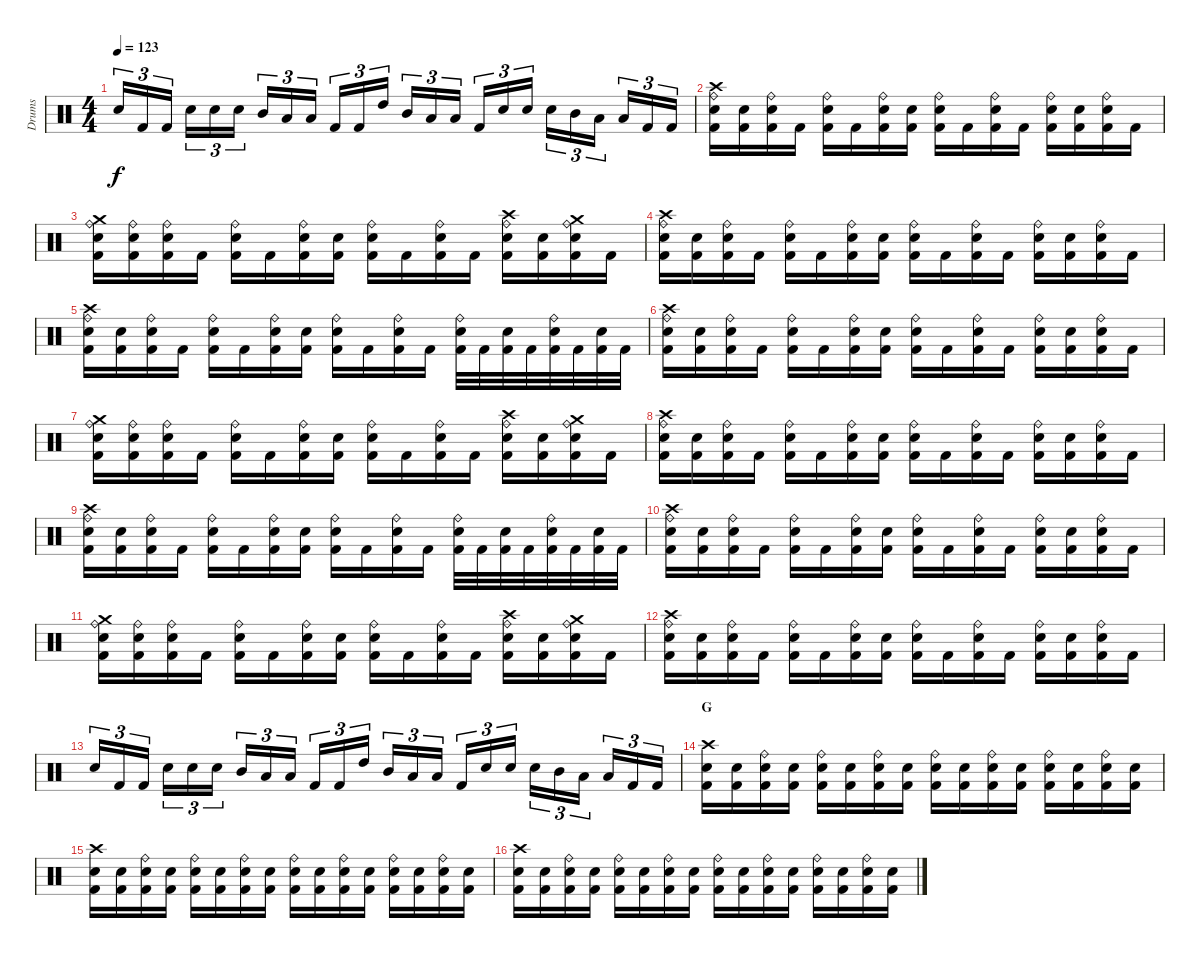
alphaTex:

\track ("Drums" "Drums") {instrument percussion}
\staff {score}
\articulation defaults
\ts (4 4)
\tempo 123
\clef neutral
\ks c "Snare (hit) 2".16{tu (3 2) dy f} "Kick (hit) 2".16{tu (3 2)} "Kick (hit) 2".16{tu (3 2) beam splitsecondary} "Snare (hit) 2".16{tu (3 2)} "Snare (hit) 2".16{tu (3 2)} "Snare (hit) 2".16{tu (3 2)} "Mid Tom (hit)".16{tu (3 2)} "Low Tom (hit)".16{tu (3 2)} "Low Floor Tom (hit)".16{tu (3 2) beam splitsecondary} "Kick (hit) 2".16{tu (3 2)} "Kick (hit) 2".16{tu (3 2)} "High Tom (hit)".16{tu (3 2)} "Mid Tom (hit)".16{tu (3 2)} "Low Tom (hit)".16{tu (3 2)} "Low Floor Tom (hit)".16{tu (3 2) beam splitsecondary} "Kick (hit) 2".16{tu (3 2)} "Snare (hit) 2".16{tu (3 2)} "Snare (hit) 2".16{tu (3 2)} "Snare (hit) 2".16{tu (3 2)} "Mid Tom (hit)".16{tu (3 2)} "Low Tom (hit)".16{tu (3 2) beam splitsecondary} "Low Floor Tom (hit)".16{tu (3 2)} "Kick (hit) 2".16{tu (3 2)} "Kick (hit) 2".16{tu (3 2)}
|
("Crash high (hit)" "Snare (hit) 2" "Ride (bell)" "Kick (hit) 2").16 ("Snare (hit) 2" "Kick (hit) 2").16 ("Snare (hit) 2" "Ride (bell)" "Kick (hit) 2").16 "Kick (hit) 2".16 ("Snare (hit) 2" "Ride (bell)" "Kick (hit) 2").16 "Kick (hit) 2".16 ("Snare (hit) 2" "Ride (bell)" "Kick (hit) 2").16 ("Snare (hit) 2" "Kick (hit) 2").16 ("Snare (hit) 2" "Ride (bell)" "Kick (hit) 2").16 "Kick (hit) 2".16 ("Snare (hit) 2" "Ride (bell)" "Kick (hit) 2").16 "Kick (hit) 2".16 ("Snare (hit) 2" "Ride (bell)" "Kick (hit) 2").16 ("Snare (hit) 2" "Kick (hit) 2").16 ("Snare (hit) 2" "Ride (bell)" "Kick (hit) 2").16 "Kick (hit) 2".16 |
("Crash medium (hit)" "Snare (hit) 2" "Ride (bell)" "Kick (hit) 2").16 ("Snare (hit) 2" "Ride (bell)" "Kick (hit) 2").16 ("Snare (hit) 2" "Ride (bell)" "Kick (hit) 2").16 "Kick (hit) 2".16 ("Snare (hit) 2" "Ride (bell)" "Kick (hit) 2").16 "Kick (hit) 2".16 ("Snare (hit) 2" "Ride (bell)" "Kick (hit) 2").16 ("Snare (hit) 2" "Kick (hit) 2").16 ("Snare (hit) 2" "Ride (bell)" "Kick (hit) 2").16 "Kick (hit) 2".16 ("Snare (hit) 2" "Ride (bell)" "Kick (hit) 2").16 "Kick (hit) 2".16 ("Crash high (hit)" "Snare (hit) 2" "Ride (bell)" "Kick (hit) 2").16 ("Snare (hit) 2" "Kick (hit) 2").16 ("Crash medium (hit)" "Snare (hit) 2" "Ride (bell)" "Kick (hit) 2").16 "Kick (hit) 2".16 |
("Crash high (hit)" "Snare (hit) 2" "Ride (bell)" "Kick (hit) 2").16 ("Snare (hit) 2" "Kick (hit) 2").16 ("Snare (hit) 2" "Ride (bell)" "Kick (hit) 2").16 "Kick (hit) 2".16 ("Snare (hit) 2" "Ride (bell)" "Kick (hit) 2").16 "Kick (hit) 2".16 ("Snare (hit) 2" "Ride (bell)" "Kick (hit) 2").16 ("Snare (hit) 2" "Kick (hit) 2").16 ("Snare (hit) 2" "Ride (bell)" "Kick (hit) 2").16 "Kick (hit) 2".16 ("Snare (hit) 2" "Ride (bell)" "Kick (hit) 2").16 "Kick (hit) 2".16 ("Snare (hit) 2" "Ride (bell)" "Kick (hit) 2").16 ("Snare (hit) 2" "Kick (hit) 2").16 ("Snare (hit) 2" "Ride (bell)" "Kick (hit) 2").16 "Kick (hit) 2".16 |
("Crash high (hit)" "Snare (hit) 2" "Ride (bell)" "Kick (hit) 2").16 ("Snare (hit) 2" "Kick (hit) 2").16 ("Snare (hit) 2" "Ride (bell)" "Kick (hit) 2").16 "Kick (hit) 2".16 ("Snare (hit) 2" "Ride (bell)" "Kick (hit) 2").16 "Kick (hit) 2".16 ("Snare (hit) 2" "Ride (bell)" "Kick (hit) 2").16 ("Snare (hit) 2" "Kick (hit) 2").16 ("Snare (hit) 2" "Ride (bell)" "Kick (hit) 2").16 "Kick (hit) 2".16 ("Snare (hit) 2" "Ride (bell)" "Kick (hit) 2").16 "Kick (hit) 2".16 ("Snare (hit) 2" "Ride (bell)" "Kick (hit) 2").32 "Kick (hit) 2".32 ("Snare (hit) 2" "Kick (hit) 2").32 "Kick (hit) 2".32 ("Snare (hit) 2" "Ride (bell)" "Kick (hit) 2").32 "Kick (hit) 2".32 ("Snare (hit) 2" "Kick (hit) 2").32 "Kick (hit) 2".32 |
("Crash high (hit)" "Snare (hit) 2" "Ride (bell)" "Kick (hit) 2").16 ("Snare (hit) 2" "Kick (hit) 2").16 ("Snare (hit) 2" "Ride (bell)" "Kick (hit) 2").16 "Kick (hit) 2".16 ("Snare (hit) 2" "Ride (bell)" "Kick (hit) 2").16 "Kick (hit) 2".16 ("Snare (hit) 2" "Ride (bell)" "Kick (hit) 2").16 ("Snare (hit) 2" "Kick (hit) 2").16 ("Snare (hit) 2" "Ride (bell)" "Kick (hit) 2").16 "Kick (hit) 2".16 ("Snare (hit) 2" "Ride (bell)" "Kick (hit) 2").16 "Kick (hit) 2".16 ("Snare (hit) 2" "Ride (bell)" "Kick (hit) 2").16 ("Snare (hit) 2" "Kick (hit) 2").16 ("Snare (hit) 2" "Ride (bell)" "Kick (hit) 2").16 "Kick (hit) 2".16 |
("Crash medium (hit)" "Snare (hit) 2" "Ride (bell)" "Kick (hit) 2").16 ("Snare (hit) 2" "Ride (bell)" "Kick (hit) 2").16 ("Snare (hit) 2" "Ride (bell)" "Kick (hit) 2").16 "Kick (hit) 2".16 ("Snare (hit) 2" "Ride (bell)" "Kick (hit) 2").16 "Kick (hit) 2".16 ("Snare (hit) 2" "Ride (bell)" "Kick (hit) 2").16 ("Snare (hit) 2" "Kick (hit) 2").16 ("Snare (hit) 2" "Ride (bell)" "Kick (hit) 2").16 "Kick (hit) 2".16 ("Snare (hit) 2" "Ride (bell)" "Kick (hit) 2").16 "Kick (hit) 2".16 ("Crash high (hit)" "Snare (hit) 2" "Ride (bell)" "Kick (hit) 2").16 ("Snare (hit) 2" "Kick (hit) 2").16 ("Crash medium (hit)" "Snare (hit) 2" "Ride (bell)" "Kick (hit) 2").16 "Kick (hit) 2".16 |
("Crash high (hit)" "Snare (hit) 2" "Ride (bell)" "Kick (hit) 2").16 ("Snare (hit) 2" "Kick (hit) 2").16 ("Snare (hit) 2" "Ride (bell)" "Kick (hit) 2").16 "Kick (hit) 2".16 ("Snare (hit) 2" "Ride (bell)" "Kick (hit) 2").16 "Kick (hit) 2".16 ("Snare (hit) 2" "Ride (bell)" "Kick (hit) 2").16 ("Snare (hit) 2" "Kick (hit) 2").16 ("Snare (hit) 2" "Ride (bell)" "Kick (hit) 2").16 "Kick (hit) 2".16 ("Snare (hit) 2" "Ride (bell)" "Kick (hit) 2").16 "Kick (hit) 2".16 ("Snare (hit) 2" "Ride (bell)" "Kick (hit) 2").16 ("Snare (hit) 2" "Kick (hit) 2").16 ("Snare (hit) 2" "Ride (bell)" "Kick (hit) 2").16 "Kick (hit) 2".16 |
("Crash high (hit)" "Snare (hit) 2" "Ride (bell)" "Kick (hit) 2").16 ("Snare (hit) 2" "Kick (hit) 2").16 ("Snare (hit) 2" "Ride (bell)" "Kick (hit) 2").16 "Kick (hit) 2".16 ("Snare (hit) 2" "Ride (bell)" "Kick (hit) 2").16 "Kick (hit) 2".16 ("Snare (hit) 2" "Ride (bell)" "Kick (hit) 2").16 ("Snare (hit) 2" "Kick (hit) 2").16 ("Snare (hit) 2" "Ride (bell)" "Kick (hit) 2").16 "Kick (hit) 2".16 ("Snare (hit) 2" "Ride (bell)" "Kick (hit) 2").16 "Kick (hit) 2".16 ("Snare (hit) 2" "Ride (bell)" "Kick (hit) 2").32 "Kick (hit) 2".32 ("Snare (hit) 2" "Kick (hit) 2").32 "Kick (hit) 2".32 ("Snare (hit) 2" "Ride (bell)" "Kick (hit) 2").32 "Kick (hit) 2".32 ("Snare (hit) 2" "Kick (hit) 2").32 "Kick (hit) 2".32 |
("Crash high (hit)" "Snare (hit) 2" "Ride (bell)" "Kick (hit) 2").16 ("Snare (hit) 2" "Kick (hit) 2").16 ("Snare (hit) 2" "Ride (bell)" "Kick (hit) 2").16 "Kick (hit) 2".16 ("Snare (hit) 2" "Ride (bell)" "Kick (hit) 2").16 "Kick (hit) 2".16 ("Snare (hit) 2" "Ride (bell)" "Kick (hit) 2").16 ("Snare (hit) 2" "Kick (hit) 2").16 ("Snare (hit) 2" "Ride (bell)" "Kick (hit) 2").16 "Kick (hit) 2".16 ("Snare (hit) 2" "Ride (bell)" "Kick (hit) 2").16 "Kick (hit) 2".16 ("Snare (hit) 2" "Ride (bell)" "Kick (hit) 2").16 ("Snare (hit) 2" "Kick (hit) 2").16 ("Snare (hit) 2" "Ride (bell)" "Kick (hit) 2").16 "Kick (hit) 2".16 |
("Crash medium (hit)" "Snare (hit) 2" "Ride (bell)" "Kick (hit) 2").16 ("Snare (hit) 2" "Ride (bell)" "Kick (hit) 2").16 ("Snare (hit) 2" "Ride (bell)" "Kick (hit) 2").16 "Kick (hit) 2".16 ("Snare (hit) 2" "Ride (bell)" "Kick (hit) 2").16 "Kick (hit) 2".16 ("Snare (hit) 2" "Ride (bell)" "Kick (hit) 2").16 ("Snare (hit) 2" "Kick (hit) 2").16 ("Snare (hit) 2" "Ride (bell)" "Kick (hit) 2").16 "Kick (hit) 2".16 ("Snare (hit) 2" "Ride (bell)" "Kick (hit) 2").16 "Kick (hit) 2".16 ("Crash high (hit)" "Snare (hit) 2" "Ride (bell)" "Kick (hit) 2").16 ("Snare (hit) 2" "Kick (hit) 2").16 ("Crash medium (hit)" "Snare (hit) 2" "Ride (bell)" "Kick (hit) 2").16 "Kick (hit) 2".16 |
("Crash high (hit)" "Snare (hit) 2" "Ride (bell)" "Kick (hit) 2").16 ("Snare (hit) 2" "Kick (hit) 2").16 ("Snare (hit) 2" "Ride (bell)" "Kick (hit) 2").16 "Kick (hit) 2".16 ("Snare (hit) 2" "Ride (bell)" "Kick (hit) 2").16 "Kick (hit) 2".16 ("Snare (hit) 2" "Ride (bell)" "Kick (hit) 2").16 ("Snare (hit) 2" "Kick (hit) 2").16 ("Snare (hit) 2" "Ride (bell)" "Kick (hit) 2").16 "Kick (hit) 2".16 ("Snare (hit) 2" "Ride (bell)" "Kick (hit) 2").16 "Kick (hit) 2".16 ("Snare (hit) 2" "Ride (bell)" "Kick (hit) 2").16 ("Snare (hit) 2" "Kick (hit) 2").16 ("Snare (hit) 2" "Ride (bell)" "Kick (hit) 2").16 "Kick (hit) 2".16 |
"Snare (hit) 2".16{tu (3 2)} "Kick (hit) 2".16{tu (3 2)} "Kick (hit) 2".16{tu (3 2) beam splitsecondary} "Snare (hit) 2".16{tu (3 2)} "Snare (hit) 2".16{tu (3 2)} "Snare (hit) 2".16{tu (3 2)} "Mid Tom (hit)".16{tu (3 2)} "Low Tom (hit)".16{tu (3 2)} "Low Floor Tom (hit)".16{tu (3 2) beam splitsecondary} "Kick (hit) 2".16{tu (3 2)} "Kick (hit) 2".16{tu (3 2)} "High Tom (hit)".16{tu (3 2)} "Mid Tom (hit)".16{tu (3 2)} "Low Tom (hit)".16{tu (3 2)} "Low Floor Tom (hit)".16{tu (3 2) beam splitsecondary} "Kick (hit) 2".16{tu (3 2)} "Snare (hit) 2".16{tu (3 2)} "Snare (hit) 2".16{tu (3 2)} "Snare (hit) 2".16{tu (3 2)} "Mid Tom (hit)".16{tu (3 2)} "Low Tom (hit)".16{tu (3 2) beam splitsecondary} "Low Floor Tom (hit)".16{tu (3 2)} "Kick (hit) 2".16{tu (3 2)} "Kick (hit) 2".16{tu (3 2)} |
\section ("" "G")
("Crash high (hit)" "Snare (hit) 2" "Kick (hit) 2").16 ("Snare (hit) 2" "Kick (hit) 2").16 ("Ride (bell)" "Snare (hit) 2" "Kick (hit) 2").16 ("Snare (hit) 2" "Kick (hit) 2").16 ("Ride (bell)" "Snare (hit) 2" "Kick (hit) 2").16 ("Snare (hit) 2" "Kick (hit) 2").16 ("Ride (bell)" "Snare (hit) 2" "Kick (hit) 2").16 ("Snare (hit) 2" "Kick (hit) 2").16 ("Ride (bell)" "Snare (hit) 2" "Kick (hit) 2").16 ("Snare (hit) 2" "Kick (hit) 2").16 ("Ride (bell)" "Snare (hit) 2" "Kick (hit) 2").16 ("Snare (hit) 2" "Kick (hit) 2").16 ("Ride (bell)" "Snare (hit) 2" "Kick (hit) 2").16 ("Snare (hit) 2" "Kick (hit) 2").16 ("Ride (bell)" "Snare (hit) 2" "Kick (hit) 2").16 ("Snare (hit) 2" "Kick (hit) 2").16 |
("Crash high (hit)" "Snare (hit) 2" "Kick (hit) 2").16 ("Snare (hit) 2" "Kick (hit) 2").16 ("Ride (bell)" "Snare (hit) 2" "Kick (hit) 2").16 ("Snare (hit) 2" "Kick (hit) 2").16 ("Ride (bell)" "Snare (hit) 2" "Kick (hit) 2").16 ("Snare (hit) 2" "Kick (hit) 2").16 ("Ride (bell)" "Snare (hit) 2" "Kick (hit) 2").16 ("Snare (hit) 2" "Kick (hit) 2").16 ("Ride (bell)" "Snare (hit) 2" "Kick (hit) 2").16 ("Snare (hit) 2" "Kick (hit) 2").16 ("Ride (bell)" "Snare (hit) 2" "Kick (hit) 2").16 ("Snare (hit) 2" "Kick (hit) 2").16 ("Ride (bell)" "Snare (hit) 2" "Kick (hit) 2").16 ("Snare (hit) 2" "Kick (hit) 2").16 ("Ride (bell)" "Snare (hit) 2" "Kick (hit) 2").16 ("Snare (hit) 2" "Kick (hit) 2").16 |
("Crash high (hit)" "Snare (hit) 2" "Kick (hit) 2").16 ("Snare (hit) 2" "Kick (hit) 2").16 ("Ride (bell)" "Snare (hit) 2" "Kick (hit) 2").16 ("Snare (hit) 2" "Kick (hit) 2").16 ("Ride (bell)" "Snare (hit) 2" "Kick (hit) 2").16 ("Snare (hit) 2" "Kick (hit) 2").16 ("Ride (bell)" "Snare (hit) 2" "Kick (hit) 2").16 ("Snare (hit) 2" "Kick (hit) 2").16 ("Ride (bell)" "Snare (hit) 2" "Kick (hit) 2").16 ("Snare (hit) 2" "Kick (hit) 2").16 ("Ride (bell)" "Snare (hit) 2" "Kick (hit) 2").16 ("Snare (hit) 2" "Kick (hit) 2").16 ("Ride (bell)" "Snare (hit) 2" "Kick (hit) 2").16 ("Snare (hit) 2" "Kick (hit) 2").16 ("Ride (bell)" "Snare (hit) 2" "Kick (hit) 2").16 ("Snare (hit) 2" "Kick (hit) 2").16
